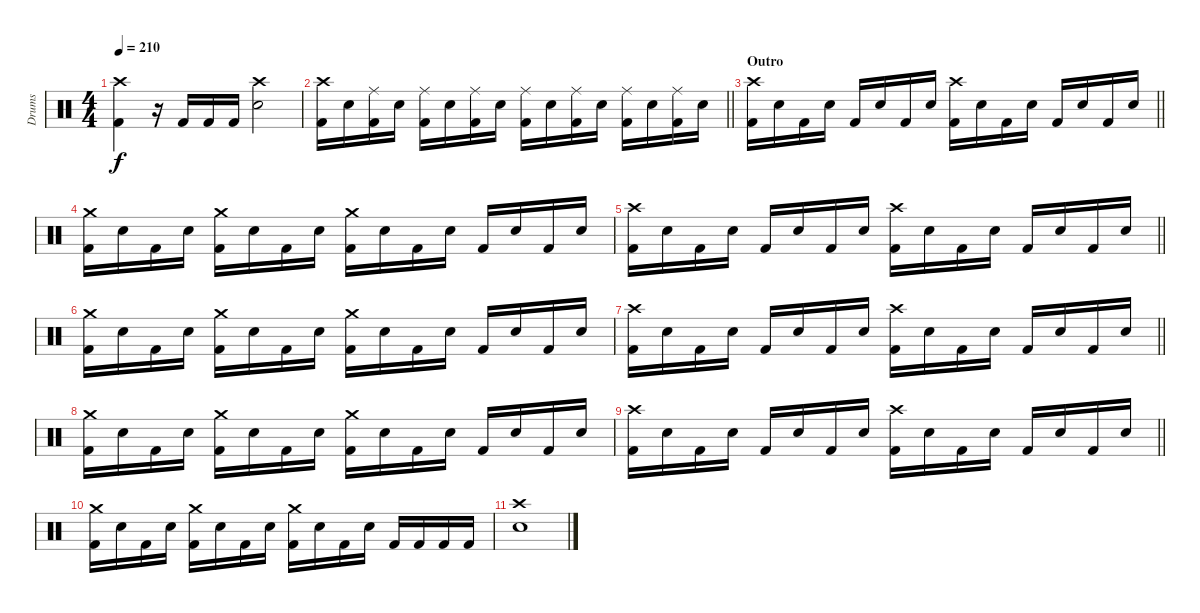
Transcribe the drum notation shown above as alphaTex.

\track ("Drums" "Drums") {instrument percussion}
\staff {score}
\articulation defaults
\ts (4 4)
\tempo 210
\clef neutral
\ks c
("Crash high (hit)" "Kick (hit) 2").4{dy f} r.16 "Kick (hit) 2".16 "Kick (hit) 2".16 "Kick (hit) 2".16 ("Crash high (hit)" "Electric Snare (hit)").2 |
\barLineRight lightlight
("Crash high (hit)" "Kick (hit) 2").16 "Electric Snare (hit)".16 ("Ride (middle)" "Kick (hit) 2").16 "Electric Snare (hit)".16 ("Ride (middle)" "Kick (hit) 2").16 "Electric Snare (hit)".16 ("Ride (middle)" "Kick (hit) 2").16 "Electric Snare (hit)".16 ("Ride (middle)" "Kick (hit) 2").16 "Electric Snare (hit)".16 ("Ride (middle)" "Kick (hit) 2").16 "Electric Snare (hit)".16 ("Ride (middle)" "Kick (hit) 2").16 "Electric Snare (hit)".16 ("Ride (middle)" "Kick (hit) 2").16 "Electric Snare (hit)".16 |
\section ("" "Outro")
\barLineRight lightlight
("Crash high (hit)" "Kick (hit) 2").16 "Electric Snare (hit)".16 "Kick (hit) 2".16 "Electric Snare (hit)".16 "Kick (hit) 2".16 "Electric Snare (hit)".16 "Kick (hit) 2".16 "Electric Snare (hit)".16 ("Crash high (hit)" "Kick (hit) 2").16 "Electric Snare (hit)".16 "Kick (hit) 2".16 "Electric Snare (hit)".16 "Kick (hit) 2".16 "Electric Snare (hit)".16 "Kick (hit) 2".16 "Electric Snare (hit)".16 |
("Crash medium (hit)" "Kick (hit) 2").16 "Electric Snare (hit)".16 "Kick (hit) 2".16 "Electric Snare (hit)".16 ("Crash medium (hit)" "Kick (hit) 2").16 "Electric Snare (hit)".16 "Kick (hit) 2".16 "Electric Snare (hit)".16 ("Crash medium (hit)" "Kick (hit) 2").16 "Electric Snare (hit)".16 "Kick (hit) 2".16 "Electric Snare (hit)".16 "Kick (hit) 2".16 "Electric Snare (hit)".16 "Kick (hit) 2".16 "Electric Snare (hit)".16 |
\barLineRight lightlight
("Crash high (hit)" "Kick (hit) 2").16 "Electric Snare (hit)".16 "Kick (hit) 2".16 "Electric Snare (hit)".16 "Kick (hit) 2".16 "Electric Snare (hit)".16 "Kick (hit) 2".16 "Electric Snare (hit)".16 ("Crash high (hit)" "Kick (hit) 2").16 "Electric Snare (hit)".16 "Kick (hit) 2".16 "Electric Snare (hit)".16 "Kick (hit) 2".16 "Electric Snare (hit)".16 "Kick (hit) 2".16 "Electric Snare (hit)".16 |
("Crash medium (hit)" "Kick (hit) 2").16 "Electric Snare (hit)".16 "Kick (hit) 2".16 "Electric Snare (hit)".16 ("Crash medium (hit)" "Kick (hit) 2").16 "Electric Snare (hit)".16 "Kick (hit) 2".16 "Electric Snare (hit)".16 ("Crash medium (hit)" "Kick (hit) 2").16 "Electric Snare (hit)".16 "Kick (hit) 2".16 "Electric Snare (hit)".16 "Kick (hit) 2".16 "Electric Snare (hit)".16 "Kick (hit) 2".16 "Electric Snare (hit)".16 |
\barLineRight lightlight
("Crash high (hit)" "Kick (hit) 2").16 "Electric Snare (hit)".16 "Kick (hit) 2".16 "Electric Snare (hit)".16 "Kick (hit) 2".16 "Electric Snare (hit)".16 "Kick (hit) 2".16 "Electric Snare (hit)".16 ("Crash high (hit)" "Kick (hit) 2").16 "Electric Snare (hit)".16 "Kick (hit) 2".16 "Electric Snare (hit)".16 "Kick (hit) 2".16 "Electric Snare (hit)".16 "Kick (hit) 2".16 "Electric Snare (hit)".16 |
("Crash medium (hit)" "Kick (hit) 2").16 "Electric Snare (hit)".16 "Kick (hit) 2".16 "Electric Snare (hit)".16 ("Crash medium (hit)" "Kick (hit) 2").16 "Electric Snare (hit)".16 "Kick (hit) 2".16 "Electric Snare (hit)".16 ("Crash medium (hit)" "Kick (hit) 2").16 "Electric Snare (hit)".16 "Kick (hit) 2".16 "Electric Snare (hit)".16 "Kick (hit) 2".16 "Electric Snare (hit)".16 "Kick (hit) 2".16 "Electric Snare (hit)".16 |
\barLineRight lightlight
("Crash high (hit)" "Kick (hit) 2").16 "Electric Snare (hit)".16 "Kick (hit) 2".16 "Electric Snare (hit)".16 "Kick (hit) 2".16 "Electric Snare (hit)".16 "Kick (hit) 2".16 "Electric Snare (hit)".16 ("Crash high (hit)" "Kick (hit) 2").16 "Electric Snare (hit)".16 "Kick (hit) 2".16 "Electric Snare (hit)".16 "Kick (hit) 2".16 "Electric Snare (hit)".16 "Kick (hit) 2".16 "Electric Snare (hit)".16 |
("Crash medium (hit)" "Kick (hit) 2").16 "Electric Snare (hit)".16 "Kick (hit) 2".16 "Electric Snare (hit)".16 ("Crash medium (hit)" "Kick (hit) 2").16 "Electric Snare (hit)".16 "Kick (hit) 2".16 "Electric Snare (hit)".16 ("Crash medium (hit)" "Kick (hit) 2").16 "Electric Snare (hit)".16 "Kick (hit) 2".16 "Electric Snare (hit)".16 "Kick (hit) 2".16 "Kick (hit) 2".16 "Kick (hit) 2".16 "Kick (hit) 2".16 |
("Crash high (hit)" "Electric Snare (hit)").1
